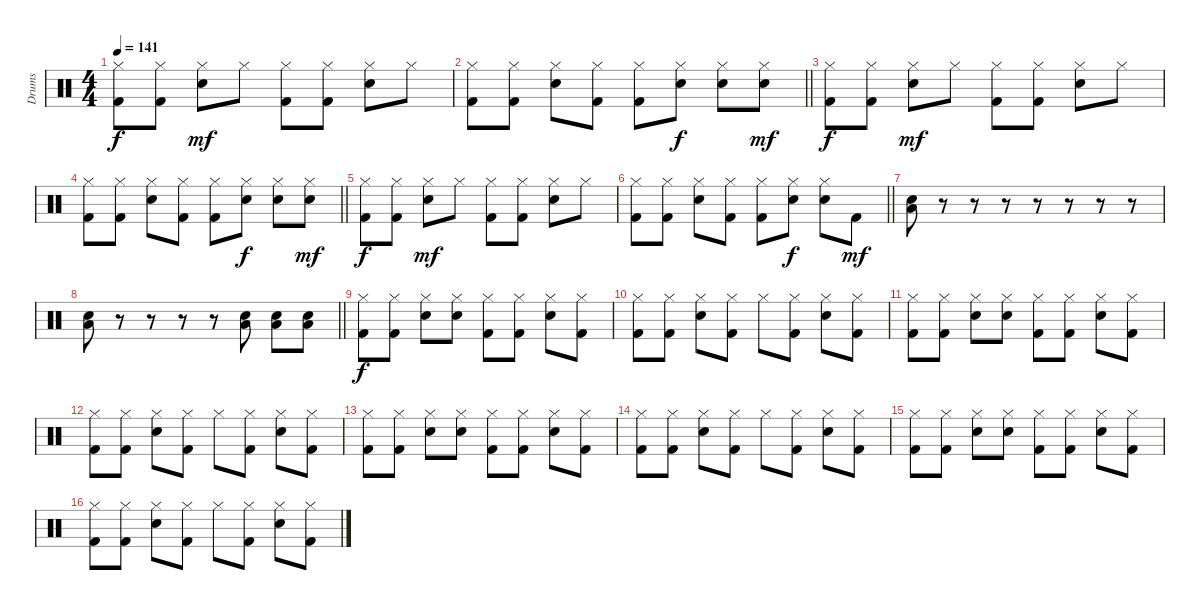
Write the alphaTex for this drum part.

\track ("Drums" "Drums") {instrument percussion}
\staff {score}
\articulation defaults
\ts (4 4)
\tempo 141
\clef neutral
\ks c
("Hi-Hat (closed)" "Kick (hit) 2").8{dy f} ("Hi-Hat (closed)" "Kick (hit) 2").8 ("Hi-Hat (closed)" "Electric Snare (hit)").8{dy mf} "Hi-Hat (closed)".8 ("Hi-Hat (closed)" "Kick (hit) 2").8 ("Hi-Hat (closed)" "Kick (hit) 2").8 ("Hi-Hat (closed)" "Electric Snare (hit)").8 "Hi-Hat (closed)".8 |
\barLineRight lightlight
("Hi-Hat (closed)" "Kick (hit) 2").8 ("Hi-Hat (closed)" "Kick (hit) 2").8 ("Hi-Hat (closed)" "Electric Snare (hit)").8 ("Hi-Hat (closed)" "Kick (hit) 2").8 ("Hi-Hat (closed)" "Kick (hit) 2").8 ("Hi-Hat (closed)" "Electric Snare (hit)").8{dy f} ("Hi-Hat (closed)" "Electric Snare (hit)").8 ("Hi-Hat (closed)" "Electric Snare (hit)").8{dy mf} |
("Hi-Hat (closed)" "Kick (hit) 2").8{dy f} ("Hi-Hat (closed)" "Kick (hit) 2").8 ("Hi-Hat (closed)" "Electric Snare (hit)").8{dy mf} "Hi-Hat (closed)".8 ("Hi-Hat (closed)" "Kick (hit) 2").8 ("Hi-Hat (closed)" "Kick (hit) 2").8 ("Hi-Hat (closed)" "Electric Snare (hit)").8 "Hi-Hat (closed)".8 |
\barLineRight lightlight
("Hi-Hat (closed)" "Kick (hit) 2").8 ("Hi-Hat (closed)" "Kick (hit) 2").8 ("Hi-Hat (closed)" "Electric Snare (hit)").8 ("Hi-Hat (closed)" "Kick (hit) 2").8 ("Hi-Hat (closed)" "Kick (hit) 2").8 ("Hi-Hat (closed)" "Electric Snare (hit)").8{dy f} ("Hi-Hat (closed)" "Electric Snare (hit)").8 ("Hi-Hat (closed)" "Electric Snare (hit)").8{dy mf} |
("Hi-Hat (closed)" "Kick (hit) 2").8{dy f} ("Hi-Hat (closed)" "Kick (hit) 2").8 ("Hi-Hat (closed)" "Electric Snare (hit)").8{dy mf} "Hi-Hat (closed)".8 ("Hi-Hat (closed)" "Kick (hit) 2").8 ("Hi-Hat (closed)" "Kick (hit) 2").8 ("Hi-Hat (closed)" "Electric Snare (hit)").8 "Hi-Hat (closed)".8 |
\barLineRight lightlight
("Hi-Hat (closed)" "Kick (hit) 2").8 ("Hi-Hat (closed)" "Kick (hit) 2").8 ("Hi-Hat (closed)" "Electric Snare (hit)").8 ("Hi-Hat (closed)" "Kick (hit) 2").8 ("Hi-Hat (closed)" "Kick (hit) 2").8 ("Hi-Hat (closed)" "Electric Snare (hit)").8{dy f} ("Hi-Hat (closed)" "Electric Snare (hit)").8 "Kick (hit) 2".8{dy mf} |
("Electric Snare (hit)" "Low Floor Tom (hit)").8 r.8 r.8 r.8 r.8 r.8 r.8 r.8 |
\barLineRight lightlight
("Electric Snare (hit)" "Low Floor Tom (hit)").8 r.8 r.8 r.8 r.8 ("Electric Snare (hit)" "Low Floor Tom (hit)").8 ("Electric Snare (hit)" "Low Floor Tom (hit)").8 ("Electric Snare (hit)" "Low Floor Tom (hit)").8 |
("Hi-Hat (closed)" "Kick (hit) 2").8{dy f} ("Hi-Hat (closed)" "Kick (hit) 2").8 ("Hi-Hat (closed)" "Electric Snare (hit)").8 ("Hi-Hat (closed)" "Electric Snare (hit)").8 ("Hi-Hat (closed)" "Kick (hit) 2").8 ("Hi-Hat (closed)" "Kick (hit) 2").8 ("Hi-Hat (closed)" "Electric Snare (hit)").8 ("Hi-Hat (closed)" "Kick (hit) 2").8 |
("Hi-Hat (closed)" "Kick (hit) 2").8 ("Hi-Hat (closed)" "Kick (hit) 2").8 ("Hi-Hat (closed)" "Electric Snare (hit)").8 ("Hi-Hat (closed)" "Kick (hit) 2").8 "Hi-Hat (closed)".8 ("Hi-Hat (closed)" "Kick (hit) 2").8 ("Hi-Hat (closed)" "Electric Snare (hit)").8 ("Hi-Hat (closed)" "Kick (hit) 2").8 |
("Hi-Hat (closed)" "Kick (hit) 2").8 ("Hi-Hat (closed)" "Kick (hit) 2").8 ("Hi-Hat (closed)" "Electric Snare (hit)").8 ("Hi-Hat (closed)" "Electric Snare (hit)").8 ("Hi-Hat (closed)" "Kick (hit) 2").8 ("Hi-Hat (closed)" "Kick (hit) 2").8 ("Hi-Hat (closed)" "Electric Snare (hit)").8 ("Hi-Hat (closed)" "Kick (hit) 2").8 |
("Hi-Hat (closed)" "Kick (hit) 2").8 ("Hi-Hat (closed)" "Kick (hit) 2").8 ("Hi-Hat (closed)" "Electric Snare (hit)").8 ("Hi-Hat (closed)" "Kick (hit) 2").8 "Hi-Hat (closed)".8 ("Hi-Hat (closed)" "Kick (hit) 2").8 ("Hi-Hat (closed)" "Electric Snare (hit)").8 ("Hi-Hat (closed)" "Kick (hit) 2").8 |
("Hi-Hat (closed)" "Kick (hit) 2").8 ("Hi-Hat (closed)" "Kick (hit) 2").8 ("Hi-Hat (closed)" "Electric Snare (hit)").8 ("Hi-Hat (closed)" "Electric Snare (hit)").8 ("Hi-Hat (closed)" "Kick (hit) 2").8 ("Hi-Hat (closed)" "Kick (hit) 2").8 ("Hi-Hat (closed)" "Electric Snare (hit)").8 ("Hi-Hat (closed)" "Kick (hit) 2").8 |
("Hi-Hat (closed)" "Kick (hit) 2").8 ("Hi-Hat (closed)" "Kick (hit) 2").8 ("Hi-Hat (closed)" "Electric Snare (hit)").8 ("Hi-Hat (closed)" "Kick (hit) 2").8 "Hi-Hat (closed)".8 ("Hi-Hat (closed)" "Kick (hit) 2").8 ("Hi-Hat (closed)" "Electric Snare (hit)").8 ("Hi-Hat (closed)" "Kick (hit) 2").8 |
("Hi-Hat (closed)" "Kick (hit) 2").8 ("Hi-Hat (closed)" "Kick (hit) 2").8 ("Hi-Hat (closed)" "Electric Snare (hit)").8 ("Hi-Hat (closed)" "Electric Snare (hit)").8 ("Hi-Hat (closed)" "Kick (hit) 2").8 ("Hi-Hat (closed)" "Kick (hit) 2").8 ("Hi-Hat (closed)" "Electric Snare (hit)").8 ("Hi-Hat (closed)" "Kick (hit) 2").8 |
("Hi-Hat (closed)" "Kick (hit) 2").8 ("Hi-Hat (closed)" "Kick (hit) 2").8 ("Hi-Hat (closed)" "Electric Snare (hit)").8 ("Hi-Hat (closed)" "Kick (hit) 2").8 "Hi-Hat (closed)".8 ("Hi-Hat (closed)" "Kick (hit) 2").8 ("Hi-Hat (closed)" "Electric Snare (hit)").8 ("Hi-Hat (closed)" "Kick (hit) 2").8
